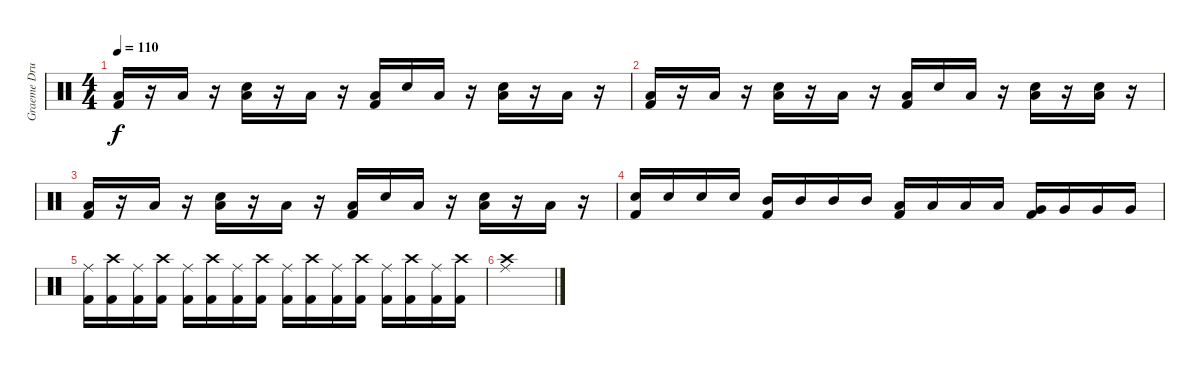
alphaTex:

\track ("Graeme Drums" "Graeme Dru") {instrument percussion}
\staff {score}
\articulation defaults
\ts (4 4)
\tempo 110
\clef neutral
\ks c
("Kick (hit) 2" "Low Tom (hit)").16{dy f} r.16 "Low Tom (hit)".16 r.16 ("Low Tom (hit)" "Snare (hit) 2").16 r.16 "Low Tom (hit)".16 r.16 ("Kick (hit) 2" "Low Tom (hit)").16 "Snare (hit) 2".16 "Low Tom (hit)".16 r.16 ("Low Tom (hit)" "Snare (hit) 2").16 r.16 "Low Tom (hit)".16 r.16 |
("Kick (hit) 2" "Low Tom (hit)").16 r.16 "Low Tom (hit)".16 r.16 ("Low Tom (hit)" "Snare (hit) 2").16 r.16 "Low Tom (hit)".16 r.16 ("Kick (hit) 2" "Low Tom (hit)").16 "Snare (hit) 2".16 "Low Tom (hit)".16 r.16 ("Low Tom (hit)" "Snare (hit) 2").16 r.16 ("Low Tom (hit)" "Snare (hit) 2").16 r.16 |
("Kick (hit) 2" "Low Tom (hit)").16 r.16 "Low Tom (hit)".16 r.16 ("Low Tom (hit)" "Snare (hit) 2").16 r.16 "Low Tom (hit)".16 r.16 ("Kick (hit) 2" "Low Tom (hit)").16 "Snare (hit) 2".16 "Low Tom (hit)".16 r.16 ("Low Tom (hit)" "Snare (hit) 2").16 r.16 "Low Tom (hit)".16 r.16 |
("Kick (hit) 2" "Snare (hit) 2").16 "Snare (hit) 2".16 "Snare (hit) 2".16 "Snare (hit) 2".16 ("Kick (hit) 2" "Mid Tom (hit)").16 "Mid Tom (hit)".16 "Mid Tom (hit)".16 "Mid Tom (hit)".16 ("Kick (hit) 2" "Low Tom (hit)").16 "Low Tom (hit)".16 "Low Tom (hit)".16 "Low Tom (hit)".16 ("Kick (hit) 2" "Very Low Tom (hit)").16 "Very Low Tom (hit)".16 "Very Low Tom (hit)".16 "Very Low Tom (hit)".16 |
("Kick (hit) 2" "Ride (middle)").16 ("Kick (hit) 2" "Crash high (hit)").16 ("Kick (hit) 2" "Ride (middle)").16 ("Kick (hit) 2" "Crash high (hit)").16 ("Kick (hit) 2" "Ride (middle)").16 ("Kick (hit) 2" "Crash high (hit)").16 ("Kick (hit) 2" "Ride (middle)").16 ("Kick (hit) 2" "Crash high (hit)").16 ("Kick (hit) 2" "Ride (middle)").16 ("Kick (hit) 2" "Crash high (hit)").16 ("Kick (hit) 2" "Ride (middle)").16 ("Kick (hit) 2" "Crash high (hit)").16 ("Kick (hit) 2" "Ride (middle)").16 ("Kick (hit) 2" "Crash high (hit)").16 ("Kick (hit) 2" "Ride (middle)").16 ("Kick (hit) 2" "Crash high (hit)").16 |
("Ride (middle)" "Crash high (hit)").1
